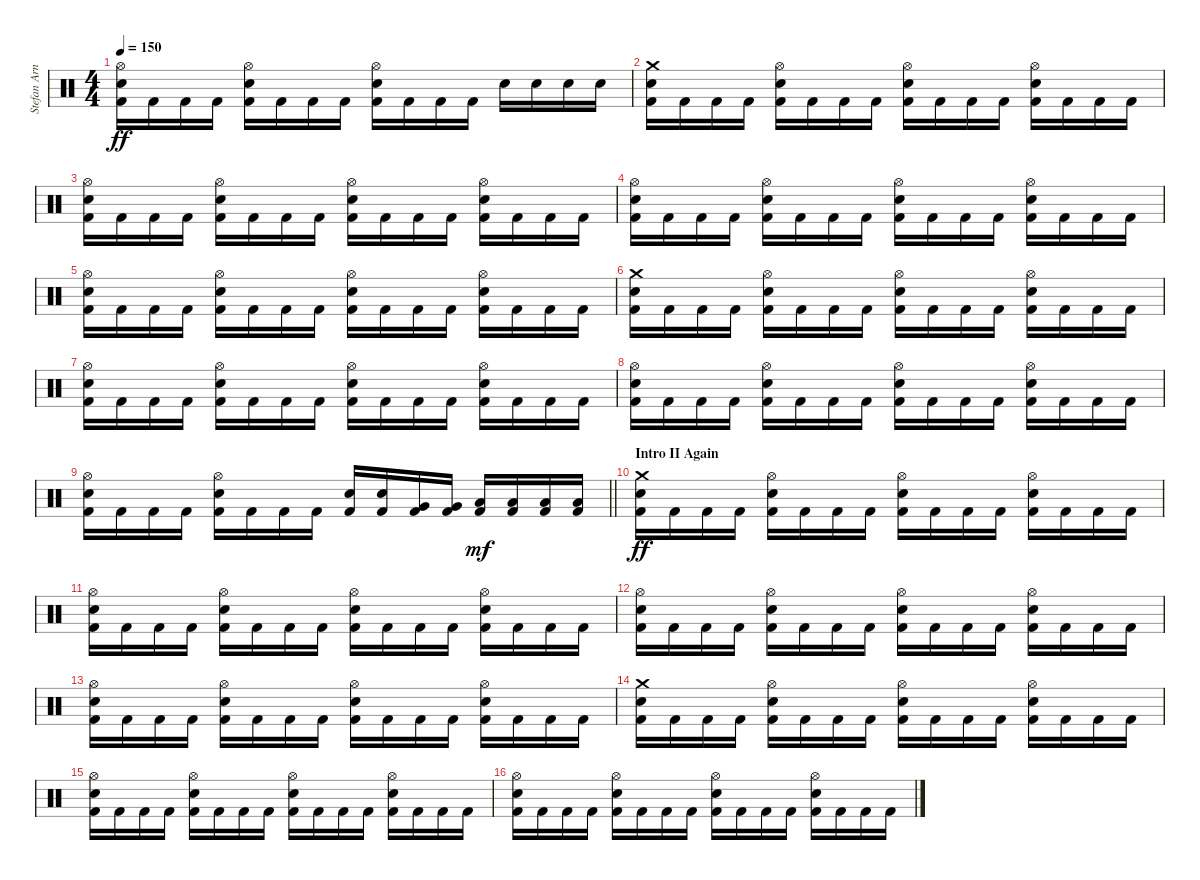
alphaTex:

\track ("Stefan Arnold" "Stefan Arn") {instrument percussion}
\staff {score}
\articulation defaults
\ts (4 4)
\tempo 150
\clef neutral
\ks c
("Hi-Hat (open)" "Electric Snare (hit)" "Kick (hit) 2").16{dy ff} "Kick (hit) 2".16 "Kick (hit) 2".16 "Kick (hit) 2".16 ("Hi-Hat (open)" "Electric Snare (hit)" "Kick (hit) 2").16 "Kick (hit) 2".16 "Kick (hit) 2".16 "Kick (hit) 2".16 ("Hi-Hat (open)" "Electric Snare (hit)" "Kick (hit) 2").16 "Kick (hit) 2".16 "Kick (hit) 2".16 "Kick (hit) 2".16 "Electric Snare (hit)".16 "Electric Snare (hit)".16 "Electric Snare (hit)".16 "Electric Snare (hit)".16 |
("Crash medium (hit)" "Electric Snare (hit)" "Kick (hit) 2").16 "Kick (hit) 2".16 "Kick (hit) 2".16 "Kick (hit) 2".16 ("Hi-Hat (open)" "Electric Snare (hit)" "Kick (hit) 2").16 "Kick (hit) 2".16 "Kick (hit) 2".16 "Kick (hit) 2".16 ("Hi-Hat (open)" "Electric Snare (hit)" "Kick (hit) 2").16 "Kick (hit) 2".16 "Kick (hit) 2".16 "Kick (hit) 2".16 ("Hi-Hat (open)" "Electric Snare (hit)" "Kick (hit) 2").16 "Kick (hit) 2".16 "Kick (hit) 2".16 "Kick (hit) 2".16 |
("Hi-Hat (open)" "Electric Snare (hit)" "Kick (hit) 2").16 "Kick (hit) 2".16 "Kick (hit) 2".16 "Kick (hit) 2".16 ("Hi-Hat (open)" "Electric Snare (hit)" "Kick (hit) 2").16 "Kick (hit) 2".16 "Kick (hit) 2".16 "Kick (hit) 2".16 ("Hi-Hat (open)" "Electric Snare (hit)" "Kick (hit) 2").16 "Kick (hit) 2".16 "Kick (hit) 2".16 "Kick (hit) 2".16 ("Hi-Hat (open)" "Electric Snare (hit)" "Kick (hit) 2").16 "Kick (hit) 2".16 "Kick (hit) 2".16 "Kick (hit) 2".16 |
("Hi-Hat (open)" "Electric Snare (hit)" "Kick (hit) 2").16 "Kick (hit) 2".16 "Kick (hit) 2".16 "Kick (hit) 2".16 ("Hi-Hat (open)" "Electric Snare (hit)" "Kick (hit) 2").16 "Kick (hit) 2".16 "Kick (hit) 2".16 "Kick (hit) 2".16 ("Hi-Hat (open)" "Electric Snare (hit)" "Kick (hit) 2").16 "Kick (hit) 2".16 "Kick (hit) 2".16 "Kick (hit) 2".16 ("Hi-Hat (open)" "Electric Snare (hit)" "Kick (hit) 2").16 "Kick (hit) 2".16 "Kick (hit) 2".16 "Kick (hit) 2".16 |
("Hi-Hat (open)" "Electric Snare (hit)" "Kick (hit) 2").16 "Kick (hit) 2".16 "Kick (hit) 2".16 "Kick (hit) 2".16 ("Hi-Hat (open)" "Electric Snare (hit)" "Kick (hit) 2").16 "Kick (hit) 2".16 "Kick (hit) 2".16 "Kick (hit) 2".16 ("Hi-Hat (open)" "Electric Snare (hit)" "Kick (hit) 2").16 "Kick (hit) 2".16 "Kick (hit) 2".16 "Kick (hit) 2".16 ("Hi-Hat (open)" "Electric Snare (hit)" "Kick (hit) 2").16 "Kick (hit) 2".16 "Kick (hit) 2".16 "Kick (hit) 2".16 |
("Crash medium (hit)" "Electric Snare (hit)" "Kick (hit) 2").16 "Kick (hit) 2".16 "Kick (hit) 2".16 "Kick (hit) 2".16 ("Hi-Hat (open)" "Electric Snare (hit)" "Kick (hit) 2").16 "Kick (hit) 2".16 "Kick (hit) 2".16 "Kick (hit) 2".16 ("Hi-Hat (open)" "Electric Snare (hit)" "Kick (hit) 2").16 "Kick (hit) 2".16 "Kick (hit) 2".16 "Kick (hit) 2".16 ("Hi-Hat (open)" "Electric Snare (hit)" "Kick (hit) 2").16 "Kick (hit) 2".16 "Kick (hit) 2".16 "Kick (hit) 2".16 |
("Hi-Hat (open)" "Electric Snare (hit)" "Kick (hit) 2").16 "Kick (hit) 2".16 "Kick (hit) 2".16 "Kick (hit) 2".16 ("Hi-Hat (open)" "Electric Snare (hit)" "Kick (hit) 2").16 "Kick (hit) 2".16 "Kick (hit) 2".16 "Kick (hit) 2".16 ("Hi-Hat (open)" "Electric Snare (hit)" "Kick (hit) 2").16 "Kick (hit) 2".16 "Kick (hit) 2".16 "Kick (hit) 2".16 ("Hi-Hat (open)" "Electric Snare (hit)" "Kick (hit) 2").16 "Kick (hit) 2".16 "Kick (hit) 2".16 "Kick (hit) 2".16 |
("Hi-Hat (open)" "Electric Snare (hit)" "Kick (hit) 2").16 "Kick (hit) 2".16 "Kick (hit) 2".16 "Kick (hit) 2".16 ("Hi-Hat (open)" "Electric Snare (hit)" "Kick (hit) 2").16 "Kick (hit) 2".16 "Kick (hit) 2".16 "Kick (hit) 2".16 ("Hi-Hat (open)" "Electric Snare (hit)" "Kick (hit) 2").16 "Kick (hit) 2".16 "Kick (hit) 2".16 "Kick (hit) 2".16 ("Hi-Hat (open)" "Electric Snare (hit)" "Kick (hit) 2").16 "Kick (hit) 2".16 "Kick (hit) 2".16 "Kick (hit) 2".16 |
\barLineRight lightlight
("Hi-Hat (open)" "Electric Snare (hit)" "Kick (hit) 2").16 "Kick (hit) 2".16 "Kick (hit) 2".16 "Kick (hit) 2".16 ("Hi-Hat (open)" "Electric Snare (hit)" "Kick (hit) 2").16 "Kick (hit) 2".16 "Kick (hit) 2".16 "Kick (hit) 2".16 ("Electric Snare (hit)" "Kick (hit) 2").16 ("Electric Snare (hit)" "Kick (hit) 2").16 ("Very Low Tom (hit)" "Kick (hit) 2").16 ("Very Low Tom (hit)" "Kick (hit) 2").16 ("Low Tom (hit)" "Kick (hit) 2").16{dy mf} ("Low Tom (hit)" "Kick (hit) 2").16 ("Low Floor Tom (hit)" "Kick (hit) 2").16 ("Low Floor Tom (hit)" "Kick (hit) 2").16 |
\section ("" "Intro II Again")
("Crash medium (hit)" "Electric Snare (hit)" "Kick (hit) 2").16{dy ff} "Kick (hit) 2".16 "Kick (hit) 2".16 "Kick (hit) 2".16 ("Hi-Hat (open)" "Electric Snare (hit)" "Kick (hit) 2").16 "Kick (hit) 2".16 "Kick (hit) 2".16 "Kick (hit) 2".16 ("Hi-Hat (open)" "Electric Snare (hit)" "Kick (hit) 2").16 "Kick (hit) 2".16 "Kick (hit) 2".16 "Kick (hit) 2".16 ("Hi-Hat (open)" "Electric Snare (hit)" "Kick (hit) 2").16 "Kick (hit) 2".16 "Kick (hit) 2".16 "Kick (hit) 2".16 |
("Hi-Hat (open)" "Electric Snare (hit)" "Kick (hit) 2").16 "Kick (hit) 2".16 "Kick (hit) 2".16 "Kick (hit) 2".16 ("Hi-Hat (open)" "Electric Snare (hit)" "Kick (hit) 2").16 "Kick (hit) 2".16 "Kick (hit) 2".16 "Kick (hit) 2".16 ("Hi-Hat (open)" "Electric Snare (hit)" "Kick (hit) 2").16 "Kick (hit) 2".16 "Kick (hit) 2".16 "Kick (hit) 2".16 ("Hi-Hat (open)" "Electric Snare (hit)" "Kick (hit) 2").16 "Kick (hit) 2".16 "Kick (hit) 2".16 "Kick (hit) 2".16 |
("Hi-Hat (open)" "Electric Snare (hit)" "Kick (hit) 2").16 "Kick (hit) 2".16 "Kick (hit) 2".16 "Kick (hit) 2".16 ("Hi-Hat (open)" "Electric Snare (hit)" "Kick (hit) 2").16 "Kick (hit) 2".16 "Kick (hit) 2".16 "Kick (hit) 2".16 ("Hi-Hat (open)" "Electric Snare (hit)" "Kick (hit) 2").16 "Kick (hit) 2".16 "Kick (hit) 2".16 "Kick (hit) 2".16 ("Hi-Hat (open)" "Electric Snare (hit)" "Kick (hit) 2").16 "Kick (hit) 2".16 "Kick (hit) 2".16 "Kick (hit) 2".16 |
("Hi-Hat (open)" "Electric Snare (hit)" "Kick (hit) 2").16 "Kick (hit) 2".16 "Kick (hit) 2".16 "Kick (hit) 2".16 ("Hi-Hat (open)" "Electric Snare (hit)" "Kick (hit) 2").16 "Kick (hit) 2".16 "Kick (hit) 2".16 "Kick (hit) 2".16 ("Hi-Hat (open)" "Electric Snare (hit)" "Kick (hit) 2").16 "Kick (hit) 2".16 "Kick (hit) 2".16 "Kick (hit) 2".16 ("Hi-Hat (open)" "Electric Snare (hit)" "Kick (hit) 2").16 "Kick (hit) 2".16 "Kick (hit) 2".16 "Kick (hit) 2".16 |
("Crash medium (hit)" "Electric Snare (hit)" "Kick (hit) 2").16 "Kick (hit) 2".16 "Kick (hit) 2".16 "Kick (hit) 2".16 ("Hi-Hat (open)" "Electric Snare (hit)" "Kick (hit) 2").16 "Kick (hit) 2".16 "Kick (hit) 2".16 "Kick (hit) 2".16 ("Hi-Hat (open)" "Electric Snare (hit)" "Kick (hit) 2").16 "Kick (hit) 2".16 "Kick (hit) 2".16 "Kick (hit) 2".16 ("Hi-Hat (open)" "Electric Snare (hit)" "Kick (hit) 2").16 "Kick (hit) 2".16 "Kick (hit) 2".16 "Kick (hit) 2".16 |
("Hi-Hat (open)" "Electric Snare (hit)" "Kick (hit) 2").16 "Kick (hit) 2".16 "Kick (hit) 2".16 "Kick (hit) 2".16 ("Hi-Hat (open)" "Electric Snare (hit)" "Kick (hit) 2").16 "Kick (hit) 2".16 "Kick (hit) 2".16 "Kick (hit) 2".16 ("Hi-Hat (open)" "Electric Snare (hit)" "Kick (hit) 2").16 "Kick (hit) 2".16 "Kick (hit) 2".16 "Kick (hit) 2".16 ("Hi-Hat (open)" "Electric Snare (hit)" "Kick (hit) 2").16 "Kick (hit) 2".16 "Kick (hit) 2".16 "Kick (hit) 2".16 |
("Hi-Hat (open)" "Electric Snare (hit)" "Kick (hit) 2").16 "Kick (hit) 2".16 "Kick (hit) 2".16 "Kick (hit) 2".16 ("Hi-Hat (open)" "Electric Snare (hit)" "Kick (hit) 2").16 "Kick (hit) 2".16 "Kick (hit) 2".16 "Kick (hit) 2".16 ("Hi-Hat (open)" "Electric Snare (hit)" "Kick (hit) 2").16 "Kick (hit) 2".16 "Kick (hit) 2".16 "Kick (hit) 2".16 ("Hi-Hat (open)" "Electric Snare (hit)" "Kick (hit) 2").16 "Kick (hit) 2".16 "Kick (hit) 2".16 "Kick (hit) 2".16
